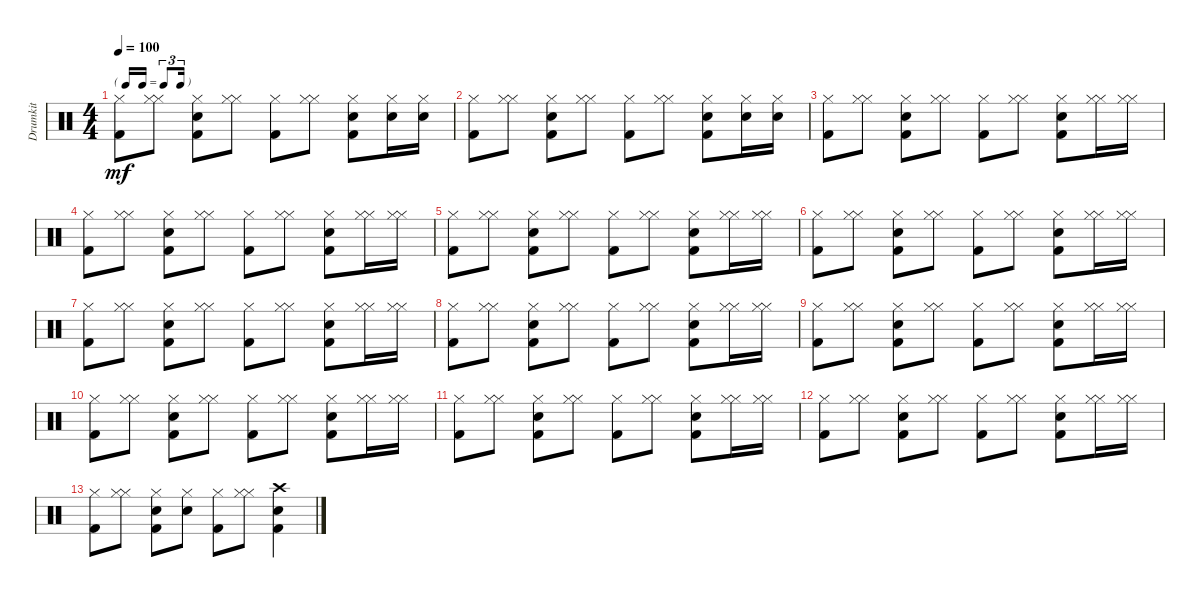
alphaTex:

\track ("Drumkit" "Drumkit") {instrument percussion}
\staff {score}
\articulation defaults
\ts (4 4)
\tf triplet16th
\tempo 100
\clef neutral
\ks c
("Hi-Hat (closed)" "Kick (hit) 2").8{dy mf} ("Hi-Hat (closed)" "Hi-Hat (closed)").8 ("Snare (hit) 2" "Hi-Hat (closed)" "Kick (hit) 2").8 ("Hi-Hat (closed)" "Hi-Hat (closed)").8 ("Hi-Hat (closed)" "Kick (hit) 2").8 ("Hi-Hat (closed)" "Hi-Hat (closed)").8 ("Hi-Hat (closed)" "Snare (hit) 2" "Kick (hit) 2").8 ("Snare (hit) 2" "Hi-Hat (closed)").16 ("Snare (hit) 2" "Hi-Hat (closed)").16 |
("Hi-Hat (closed)" "Kick (hit) 2").8 ("Hi-Hat (closed)" "Hi-Hat (closed)").8 ("Snare (hit) 2" "Hi-Hat (closed)" "Kick (hit) 2").8 ("Hi-Hat (closed)" "Hi-Hat (closed)").8 ("Hi-Hat (closed)" "Kick (hit) 2").8 ("Hi-Hat (closed)" "Hi-Hat (closed)").8 ("Hi-Hat (closed)" "Snare (hit) 2" "Kick (hit) 2").8 ("Snare (hit) 2" "Hi-Hat (closed)").16 ("Snare (hit) 2" "Hi-Hat (closed)").16 |
("Hi-Hat (closed)" "Kick (hit) 2").8 ("Hi-Hat (closed)" "Hi-Hat (closed)").8 ("Snare (hit) 2" "Hi-Hat (closed)" "Kick (hit) 2").8 ("Hi-Hat (closed)" "Hi-Hat (closed)").8 ("Hi-Hat (closed)" "Kick (hit) 2").8 ("Hi-Hat (closed)" "Hi-Hat (closed)").8 ("Snare (hit) 2" "Hi-Hat (closed)" "Kick (hit) 2").8 ("Hi-Hat (closed)" "Hi-Hat (closed)").16 ("Hi-Hat (closed)" "Hi-Hat (closed)").16 |
("Hi-Hat (closed)" "Kick (hit) 2").8 ("Hi-Hat (closed)" "Hi-Hat (closed)").8 ("Snare (hit) 2" "Hi-Hat (closed)" "Kick (hit) 2").8 ("Hi-Hat (closed)" "Hi-Hat (closed)").8 ("Hi-Hat (closed)" "Kick (hit) 2").8 ("Hi-Hat (closed)" "Hi-Hat (closed)").8 ("Snare (hit) 2" "Hi-Hat (closed)" "Kick (hit) 2").8 ("Hi-Hat (closed)" "Hi-Hat (closed)").16 ("Hi-Hat (closed)" "Hi-Hat (closed)").16 |
("Hi-Hat (closed)" "Kick (hit) 2").8 ("Hi-Hat (closed)" "Hi-Hat (closed)").8 ("Snare (hit) 2" "Hi-Hat (closed)" "Kick (hit) 2").8 ("Hi-Hat (closed)" "Hi-Hat (closed)").8 ("Hi-Hat (closed)" "Kick (hit) 2").8 ("Hi-Hat (closed)" "Hi-Hat (closed)").8 ("Snare (hit) 2" "Hi-Hat (closed)" "Kick (hit) 2").8 ("Hi-Hat (closed)" "Hi-Hat (closed)").16 ("Hi-Hat (closed)" "Hi-Hat (closed)").16 |
("Hi-Hat (closed)" "Kick (hit) 2").8 ("Hi-Hat (closed)" "Hi-Hat (closed)").8 ("Snare (hit) 2" "Hi-Hat (closed)" "Kick (hit) 2").8 ("Hi-Hat (closed)" "Hi-Hat (closed)").8 ("Hi-Hat (closed)" "Kick (hit) 2").8 ("Hi-Hat (closed)" "Hi-Hat (closed)").8 ("Snare (hit) 2" "Hi-Hat (closed)" "Kick (hit) 2").8 ("Hi-Hat (closed)" "Hi-Hat (closed)").16 ("Hi-Hat (closed)" "Hi-Hat (closed)").16 |
("Hi-Hat (closed)" "Kick (hit) 2").8 ("Hi-Hat (closed)" "Hi-Hat (closed)").8 ("Snare (hit) 2" "Hi-Hat (closed)" "Kick (hit) 2").8 ("Hi-Hat (closed)" "Hi-Hat (closed)").8 ("Hi-Hat (closed)" "Kick (hit) 2").8 ("Hi-Hat (closed)" "Hi-Hat (closed)").8 ("Snare (hit) 2" "Hi-Hat (closed)" "Kick (hit) 2").8 ("Hi-Hat (closed)" "Hi-Hat (closed)").16 ("Hi-Hat (closed)" "Hi-Hat (closed)").16 |
("Hi-Hat (closed)" "Kick (hit) 2").8 ("Hi-Hat (closed)" "Hi-Hat (closed)").8 ("Snare (hit) 2" "Hi-Hat (closed)" "Kick (hit) 2").8 ("Hi-Hat (closed)" "Hi-Hat (closed)").8 ("Hi-Hat (closed)" "Kick (hit) 2").8 ("Hi-Hat (closed)" "Hi-Hat (closed)").8 ("Snare (hit) 2" "Hi-Hat (closed)" "Kick (hit) 2").8 ("Hi-Hat (closed)" "Hi-Hat (closed)").16 ("Hi-Hat (closed)" "Hi-Hat (closed)").16 |
("Hi-Hat (closed)" "Kick (hit) 2").8 ("Hi-Hat (closed)" "Hi-Hat (closed)").8 ("Snare (hit) 2" "Hi-Hat (closed)" "Kick (hit) 2").8 ("Hi-Hat (closed)" "Hi-Hat (closed)").8 ("Hi-Hat (closed)" "Kick (hit) 2").8 ("Hi-Hat (closed)" "Hi-Hat (closed)").8 ("Snare (hit) 2" "Hi-Hat (closed)" "Kick (hit) 2").8 ("Hi-Hat (closed)" "Hi-Hat (closed)").16 ("Hi-Hat (closed)" "Hi-Hat (closed)").16 |
("Hi-Hat (closed)" "Kick (hit) 2").8 ("Hi-Hat (closed)" "Hi-Hat (closed)").8 ("Snare (hit) 2" "Hi-Hat (closed)" "Kick (hit) 2").8 ("Hi-Hat (closed)" "Hi-Hat (closed)").8 ("Hi-Hat (closed)" "Kick (hit) 2").8 ("Hi-Hat (closed)" "Hi-Hat (closed)").8 ("Snare (hit) 2" "Hi-Hat (closed)" "Kick (hit) 2").8 ("Hi-Hat (closed)" "Hi-Hat (closed)").16 ("Hi-Hat (closed)" "Hi-Hat (closed)").16 |
("Hi-Hat (closed)" "Kick (hit) 2").8 ("Hi-Hat (closed)" "Hi-Hat (closed)").8 ("Snare (hit) 2" "Hi-Hat (closed)" "Kick (hit) 2").8 ("Hi-Hat (closed)" "Hi-Hat (closed)").8 ("Hi-Hat (closed)" "Kick (hit) 2").8 ("Hi-Hat (closed)" "Hi-Hat (closed)").8 ("Snare (hit) 2" "Hi-Hat (closed)" "Kick (hit) 2").8 ("Hi-Hat (closed)" "Hi-Hat (closed)").16 ("Hi-Hat (closed)" "Hi-Hat (closed)").16 |
("Hi-Hat (closed)" "Kick (hit) 2").8 ("Hi-Hat (closed)" "Hi-Hat (closed)").8 ("Snare (hit) 2" "Hi-Hat (closed)" "Kick (hit) 2").8 ("Hi-Hat (closed)" "Hi-Hat (closed)").8 ("Hi-Hat (closed)" "Kick (hit) 2").8 ("Hi-Hat (closed)" "Hi-Hat (closed)").8 ("Snare (hit) 2" "Hi-Hat (closed)" "Kick (hit) 2").8 ("Hi-Hat (closed)" "Hi-Hat (closed)").16 ("Hi-Hat (closed)" "Hi-Hat (closed)").16 |
("Hi-Hat (closed)" "Kick (hit) 2").8 ("Hi-Hat (closed)" "Hi-Hat (closed)").8 ("Hi-Hat (closed)" "Snare (hit) 2" "Kick (hit) 2").8 ("Snare (hit) 2" "Hi-Hat (closed)").8 ("Hi-Hat (closed)" "Kick (hit) 2").8 ("Hi-Hat (closed)" "Hi-Hat (closed)").8 ("Snare (hit) 2" "Kick (hit) 2" "Crash high (hit)").4
